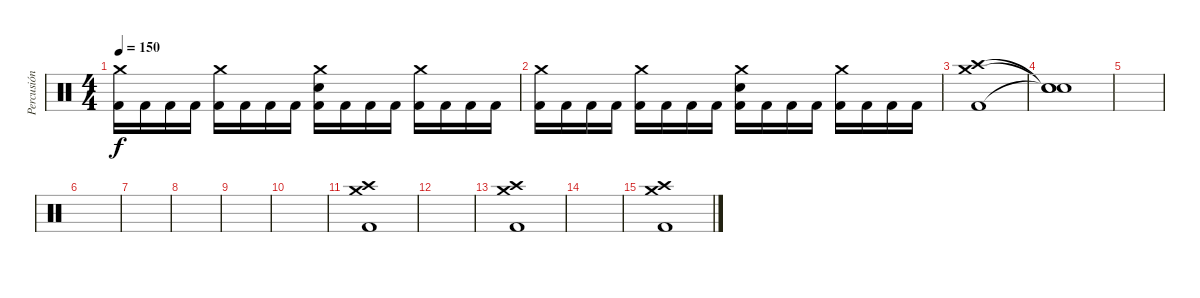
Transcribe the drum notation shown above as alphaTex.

\track ("Percusión" "Percusión") {instrument percussion}
\staff {score}
\articulation defaults
\ts (4 4)
\tempo 150
\clef neutral
\ks c
("Crash medium (hit)" "Kick (hit) 2").16{dy f} "Kick (hit) 2".16 "Kick (hit) 2".16 "Kick (hit) 2".16 ("Crash medium (hit)" "Kick (hit) 2").16 "Kick (hit) 2".16 "Kick (hit) 2".16 "Kick (hit) 2".16 ("Snare (hit) 2" "Crash medium (hit)" "Kick (hit) 2").16 "Kick (hit) 2".16 "Kick (hit) 2".16 "Kick (hit) 2".16 ("Crash medium (hit)" "Kick (hit) 2").16 "Kick (hit) 2".16 "Kick (hit) 2".16 "Kick (hit) 2".16 |
("Crash medium (hit)" "Kick (hit) 2").16 "Kick (hit) 2".16 "Kick (hit) 2".16 "Kick (hit) 2".16 ("Crash medium (hit)" "Kick (hit) 2").16 "Kick (hit) 2".16 "Kick (hit) 2".16 "Kick (hit) 2".16 ("Snare (hit) 2" "Crash medium (hit)" "Kick (hit) 2").16 "Kick (hit) 2".16 "Kick (hit) 2".16 "Kick (hit) 2".16 ("Crash medium (hit)" "Kick (hit) 2").16 "Kick (hit) 2".16 "Kick (hit) 2".16 "Kick (hit) 2".16 |
("Crash high (hit)" "Kick (hit) 2" "Crash medium (hit)").1 |
("Snare (hit)"{t} "Snare (hit)"{t} "Snare (hit)"{t}).1 |
|
|
|
|
|
|
("Crash high (hit)" "Kick (hit) 2" "Crash medium (hit)").1 |
|
("Crash high (hit)" "Kick (hit) 2" "Crash medium (hit)").1 |
|
("Crash high (hit)" "Kick (hit) 2" "Crash medium (hit)").1
